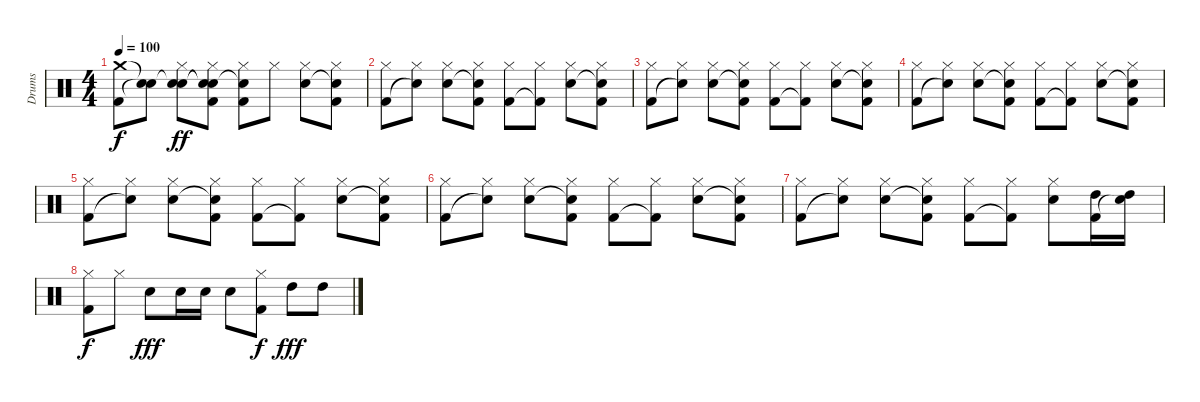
\track ("Drums" "Drums") {instrument percussion}
\staff {score}
\articulation defaults
\ts (4 4)
\tempo 100
\clef neutral
\ks c
("Crash medium (hit)" "Kick (hit) 2").8{dy f} ("Snare (hit)"{t} "Snare (hit)"{t}).8 ("Snare (hit)"{t} "Hi-Hat (closed)" "Snare (hit) 2").8{dy ff} ("Snare (hit)"{t} "Hi-Hat (closed)" "Snare (hit)"{t} "Kick (hit) 2").8 ("Snare (hit)"{t} "Hi-Hat (closed)" "Kick (hit) 2").8 "Hi-Hat (closed)".8 ("Hi-Hat (closed)" "Snare (hit) 2").8 ("Hi-Hat (closed)" "Snare (hit)"{t} "Kick (hit) 2").8 |
("Hi-Hat (closed)" "Kick (hit) 2").8 ("Hi-Hat (closed)" "Snare (hit)"{t}).8 ("Hi-Hat (closed)" "Snare (hit) 2").8 ("Hi-Hat (closed)" "Snare (hit)"{t} "Kick (hit) 2").8 ("Hi-Hat (closed)" "Kick (hit) 2").8 ("Hi-Hat (closed)" "Kick (hit) 2"{t}).8 ("Hi-Hat (closed)" "Snare (hit) 2").8 ("Hi-Hat (closed)" "Snare (hit)"{t} "Kick (hit) 2").8 |
("Hi-Hat (closed)" "Kick (hit) 2").8 ("Hi-Hat (closed)" "Snare (hit)"{t}).8 ("Hi-Hat (closed)" "Snare (hit) 2").8 ("Hi-Hat (closed)" "Snare (hit)"{t} "Kick (hit) 2").8 ("Hi-Hat (closed)" "Kick (hit) 2").8 ("Hi-Hat (closed)" "Kick (hit) 2"{t}).8 ("Hi-Hat (closed)" "Snare (hit) 2").8 ("Hi-Hat (closed)" "Snare (hit)"{t} "Kick (hit) 2").8 |
("Hi-Hat (closed)" "Kick (hit) 2").8 ("Hi-Hat (closed)" "Snare (hit)"{t}).8 ("Hi-Hat (closed)" "Snare (hit) 2").8 ("Hi-Hat (closed)" "Snare (hit)"{t} "Kick (hit) 2").8 ("Hi-Hat (closed)" "Kick (hit) 2").8 ("Hi-Hat (closed)" "Kick (hit) 2"{t}).8 ("Hi-Hat (closed)" "Snare (hit) 2").8 ("Hi-Hat (closed)" "Snare (hit)"{t} "Kick (hit) 2").8 |
("Hi-Hat (closed)" "Kick (hit) 2").8 ("Hi-Hat (closed)" "Snare (hit)"{t}).8 ("Hi-Hat (closed)" "Snare (hit) 2").8 ("Hi-Hat (closed)" "Snare (hit)"{t} "Kick (hit) 2").8 ("Hi-Hat (closed)" "Kick (hit) 2").8 ("Hi-Hat (closed)" "Kick (hit) 2"{t}).8 ("Hi-Hat (closed)" "Snare (hit) 2").8 ("Hi-Hat (closed)" "Snare (hit)"{t} "Kick (hit) 2").8 |
("Hi-Hat (closed)" "Kick (hit) 2").8 ("Hi-Hat (closed)" "Snare (hit)"{t}).8 ("Hi-Hat (closed)" "Snare (hit) 2").8 ("Hi-Hat (closed)" "Snare (hit)"{t} "Kick (hit) 2").8 ("Hi-Hat (closed)" "Kick (hit) 2").8 ("Hi-Hat (closed)" "Kick (hit) 2"{t}).8 ("Hi-Hat (closed)" "Snare (hit) 2").8 ("Hi-Hat (closed)" "Snare (hit)"{t} "Kick (hit) 2").8 |
("Hi-Hat (closed)" "Kick (hit) 2").8 ("Hi-Hat (closed)" "Snare (hit)"{t}).8 ("Hi-Hat (closed)" "Snare (hit) 2").8 ("Hi-Hat (closed)" "Snare (hit)"{t} "Kick (hit) 2").8 ("Hi-Hat (closed)" "Kick (hit) 2").8 ("Hi-Hat (closed)" "Kick (hit) 2"{t}).8 ("Hi-Hat (closed)" "Snare (hit) 2").8 ("High Tom (hit)" "Kick (hit) 2").16 ("High Tom (hit)" "Snare (hit)"{t}).16 |
("Hi-Hat (closed)" "Kick (hit) 2").8{dy f} "Hi-Hat (closed)".8 "Snare (hit) 2".8{dy fff} "Snare (hit) 2".16 "Snare (hit) 2".16 "Snare (hit) 2".8 ("Hi-Hat (closed)" "Kick (hit) 2").8{dy f} "High Tom (hit)".8{dy fff} "High Tom (hit)".8
